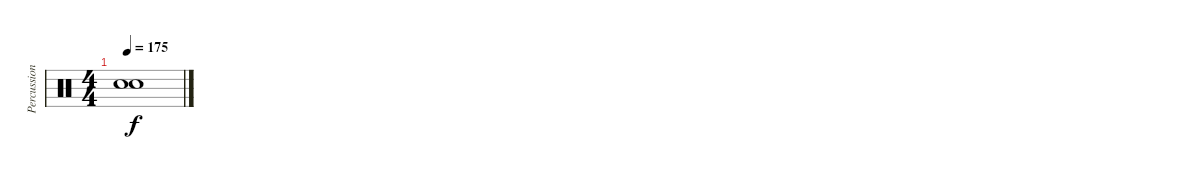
\track ("Percussion" "Percussion") {instrument percussion}
\staff {score}
\articulation defaults
\ts (4 4)
\tempo 175
\clef neutral
\ks c
("Snare (hit)"{t} "Snare (hit)"{t}).1{dy f}
